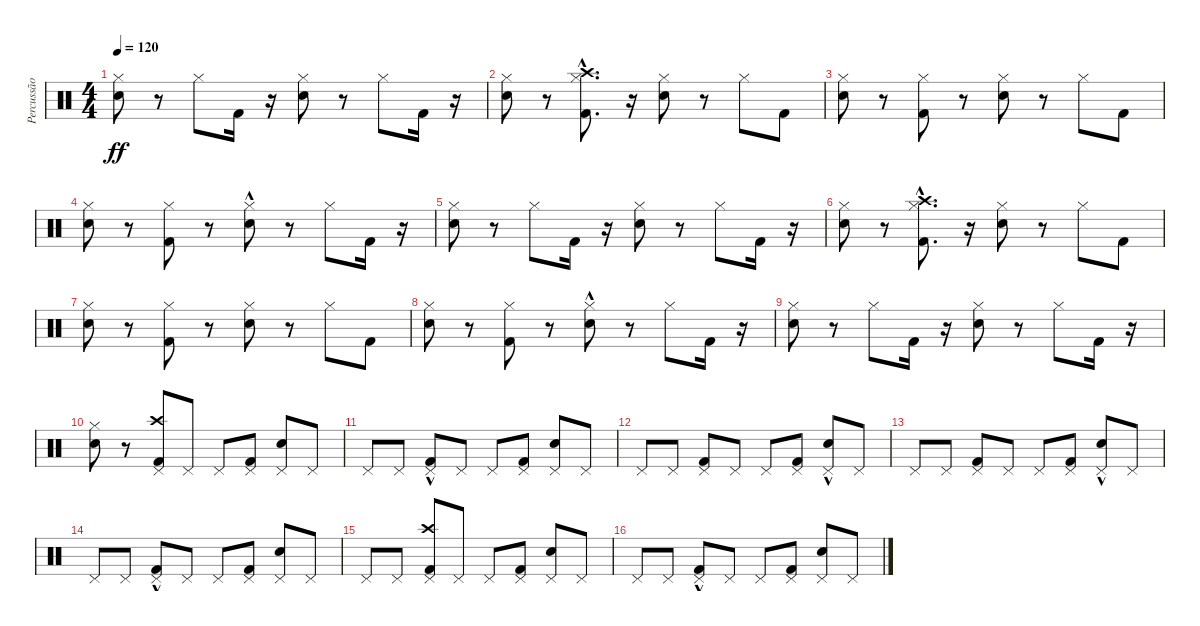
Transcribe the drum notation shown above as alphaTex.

\track ("Percussão" "Percussão") {instrument percussion}
\staff {score}
\articulation defaults
\ts (4 4)
\tempo 120
\clef neutral
\ks c
("Hi-Hat (closed)" "Snare (hit) 2").8{dy ff} r.8 "Hi-Hat (closed)".8 "Kick (hit) 2".16 r.16 ("Hi-Hat (closed)" "Snare (hit) 2").8 r.8 "Hi-Hat (closed)".8 "Kick (hit) 2".16 r.16 |
("Hi-Hat (closed)" "Snare (hit) 2").8 r.8 ("Kick (hit) 2" "Hi-Hat (closed)" "Crash high (hit)"{hac}).8{d} r.16 ("Snare (hit) 2" "Hi-Hat (closed)").8 r.8 "Hi-Hat (closed)".8 "Kick (hit) 2".8 |
("Snare (hit) 2" "Hi-Hat (closed)").8 r.8 ("Kick (hit) 2" "Hi-Hat (closed)").8 r.8 ("Snare (hit) 2" "Hi-Hat (closed)").8 r.8 "Hi-Hat (closed)".8 "Kick (hit) 2".8 |
("Snare (hit) 2" "Hi-Hat (closed)").8 r.8 ("Kick (hit) 2" "Hi-Hat (closed)").8 r.8 ("Hi-Hat (closed)" "Snare (hit) 2"{hac}).8 r.8 "Hi-Hat (closed)".8 "Kick (hit) 2".16 r.16 |
("Hi-Hat (closed)" "Snare (hit) 2").8 r.8 "Hi-Hat (closed)".8 "Kick (hit) 2".16 r.16 ("Hi-Hat (closed)" "Snare (hit) 2").8 r.8 "Hi-Hat (closed)".8 "Kick (hit) 2".16 r.16 |
("Hi-Hat (closed)" "Snare (hit) 2").8 r.8 ("Kick (hit) 2" "Hi-Hat (closed)" "Crash high (hit)"{hac}).8{d} r.16 ("Snare (hit) 2" "Hi-Hat (closed)").8 r.8 "Hi-Hat (closed)".8 "Kick (hit) 2".8 |
("Snare (hit) 2" "Hi-Hat (closed)").8 r.8 ("Kick (hit) 2" "Hi-Hat (closed)").8 r.8 ("Snare (hit) 2" "Hi-Hat (closed)").8 r.8 "Hi-Hat (closed)".8 "Kick (hit) 2".8 |
("Snare (hit) 2" "Hi-Hat (closed)").8 r.8 ("Kick (hit) 2" "Hi-Hat (closed)").8 r.8 ("Hi-Hat (closed)" "Snare (hit) 2"{hac}).8 r.8 "Hi-Hat (closed)".8 "Kick (hit) 2".16 r.16 |
("Hi-Hat (closed)" "Snare (hit) 2").8 r.8 "Hi-Hat (closed)".8 "Kick (hit) 2".16 r.16 ("Hi-Hat (closed)" "Snare (hit) 2").8 r.8 "Hi-Hat (closed)".8 "Kick (hit) 2".16 r.16 |
("Hi-Hat (closed)" "Snare (hit) 2").8 r.8 ("Kick (hit) 2" "Pedal Hi-Hat (hit)" "Crash high (hit)").8 "Pedal Hi-Hat (hit)".8 "Pedal Hi-Hat (hit)".8 ("Kick (hit) 2" "Pedal Hi-Hat (hit)").8 ("Snare (hit) 2" "Pedal Hi-Hat (hit)").8 "Pedal Hi-Hat (hit)".8 |
"Pedal Hi-Hat (hit)".8 "Pedal Hi-Hat (hit)".8 ("Kick (hit) 2"{hac} "Pedal Hi-Hat (hit)").8 "Pedal Hi-Hat (hit)".8 "Pedal Hi-Hat (hit)".8 ("Kick (hit) 2" "Pedal Hi-Hat (hit)").8 ("Snare (hit) 2" "Pedal Hi-Hat (hit)").8 "Pedal Hi-Hat (hit)".8 |
"Pedal Hi-Hat (hit)".8 "Pedal Hi-Hat (hit)".8 ("Kick (hit) 2" "Pedal Hi-Hat (hit)").8 "Pedal Hi-Hat (hit)".8 "Pedal Hi-Hat (hit)".8 ("Kick (hit) 2" "Pedal Hi-Hat (hit)").8 ("Snare (hit) 2"{hac} "Pedal Hi-Hat (hit)").8 "Pedal Hi-Hat (hit)".8 |
"Pedal Hi-Hat (hit)".8 "Pedal Hi-Hat (hit)".8 ("Kick (hit) 2" "Pedal Hi-Hat (hit)").8 "Pedal Hi-Hat (hit)".8 "Pedal Hi-Hat (hit)".8 ("Kick (hit) 2" "Pedal Hi-Hat (hit)").8 ("Snare (hit) 2"{hac} "Pedal Hi-Hat (hit)").8 "Pedal Hi-Hat (hit)".8 |
"Pedal Hi-Hat (hit)".8 "Pedal Hi-Hat (hit)".8 ("Kick (hit) 2"{hac} "Pedal Hi-Hat (hit)").8 "Pedal Hi-Hat (hit)".8 "Pedal Hi-Hat (hit)".8 ("Kick (hit) 2" "Pedal Hi-Hat (hit)").8 ("Snare (hit) 2" "Pedal Hi-Hat (hit)").8 "Pedal Hi-Hat (hit)".8 |
"Pedal Hi-Hat (hit)".8 "Pedal Hi-Hat (hit)".8 ("Kick (hit) 2" "Pedal Hi-Hat (hit)" "Crash high (hit)").8 "Pedal Hi-Hat (hit)".8 "Pedal Hi-Hat (hit)".8 ("Kick (hit) 2" "Pedal Hi-Hat (hit)").8 ("Snare (hit) 2" "Pedal Hi-Hat (hit)").8 "Pedal Hi-Hat (hit)".8 |
"Pedal Hi-Hat (hit)".8 "Pedal Hi-Hat (hit)".8 ("Kick (hit) 2"{hac} "Pedal Hi-Hat (hit)").8 "Pedal Hi-Hat (hit)".8 "Pedal Hi-Hat (hit)".8 ("Kick (hit) 2" "Pedal Hi-Hat (hit)").8 ("Snare (hit) 2" "Pedal Hi-Hat (hit)").8 "Pedal Hi-Hat (hit)".8
